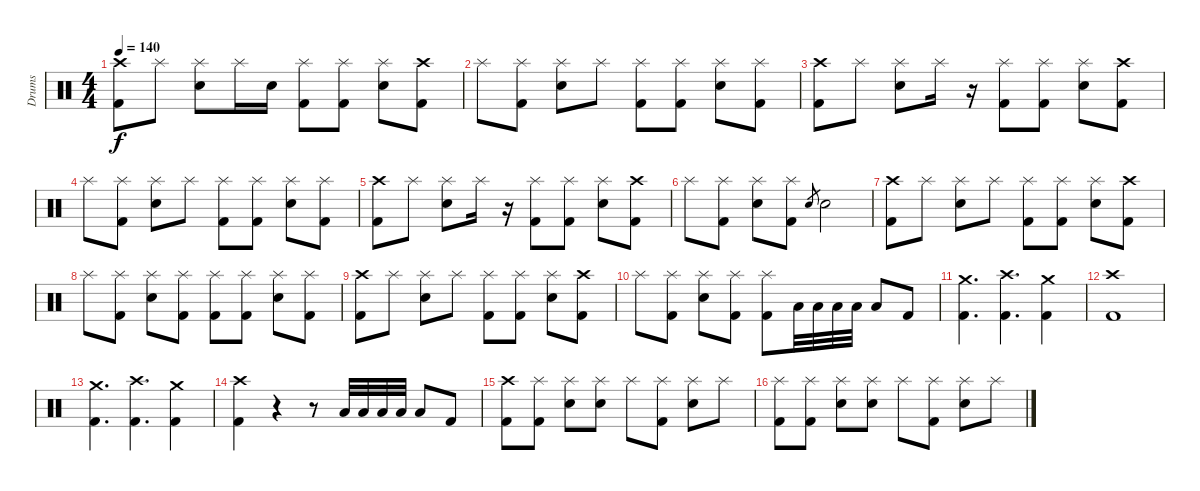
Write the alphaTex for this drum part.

\track ("Drums" "Drums") {instrument percussion}
\staff {score}
\articulation defaults
\ts (4 4)
\tempo 140
\clef neutral
\ks c
("Crash high (hit)" "Kick (hit) 2").8{dy f} "Splash (hit)".8 ("Splash (hit)" "Snare (hit) 2").8 "Splash (hit)".16 "Snare (hit) 2".16 ("Splash (hit)" "Kick (hit) 2").8 ("Splash (hit)" "Kick (hit) 2").8 ("Splash (hit)" "Snare (hit) 2").8 ("Crash high (hit)" "Kick (hit) 2").8 |
"Splash (hit)".8 ("Splash (hit)" "Kick (hit) 2").8 ("Splash (hit)" "Snare (hit) 2").8 "Splash (hit)".8 ("Splash (hit)" "Kick (hit) 2").8 ("Splash (hit)" "Kick (hit) 2").8 ("Splash (hit)" "Snare (hit) 2").8 ("Splash (hit)" "Kick (hit) 2").8 |
("Crash high (hit)" "Kick (hit) 2").8 "Splash (hit)".8 ("Splash (hit)" "Snare (hit) 2").8 "Splash (hit)".16 r.16 ("Splash (hit)" "Kick (hit) 2").8 ("Splash (hit)" "Kick (hit) 2").8 ("Splash (hit)" "Snare (hit) 2").8 ("Crash high (hit)" "Kick (hit) 2").8 |
"Splash (hit)".8 ("Splash (hit)" "Kick (hit) 2").8 ("Splash (hit)" "Snare (hit) 2").8 "Splash (hit)".8 ("Splash (hit)" "Kick (hit) 2").8 ("Splash (hit)" "Kick (hit) 2").8 ("Splash (hit)" "Snare (hit) 2").8 ("Splash (hit)" "Kick (hit) 2").8 |
("Crash high (hit)" "Kick (hit) 2").8 "Splash (hit)".8 ("Splash (hit)" "Snare (hit) 2").8 "Splash (hit)".16 r.16 ("Splash (hit)" "Kick (hit) 2").8 ("Splash (hit)" "Kick (hit) 2").8 ("Splash (hit)" "Snare (hit) 2").8 ("Crash high (hit)" "Kick (hit) 2").8 |
"Splash (hit)".8 ("Splash (hit)" "Kick (hit) 2").8 ("Splash (hit)" "Snare (hit) 2").8 ("Splash (hit)" "Kick (hit) 2").8 "Snare (hit) 2".8{gr} "Snare (hit) 2".2 |
("Crash high (hit)" "Kick (hit) 2").8 "Splash (hit)".8 ("Splash (hit)" "Snare (hit) 2").8 "Splash (hit)".8 ("Splash (hit)" "Kick (hit) 2").8 ("Splash (hit)" "Kick (hit) 2").8 ("Splash (hit)" "Snare (hit) 2").8 ("Crash high (hit)" "Kick (hit) 2").8 |
"Splash (hit)".8 ("Splash (hit)" "Kick (hit) 2").8 ("Splash (hit)" "Snare (hit) 2").8 ("Splash (hit)" "Kick (hit) 2").8 ("Splash (hit)" "Kick (hit) 2").8 ("Splash (hit)" "Kick (hit) 2").8 ("Splash (hit)" "Snare (hit) 2").8 ("Splash (hit)" "Kick (hit) 2").8 |
("Crash high (hit)" "Kick (hit) 2").8 "Splash (hit)".8 ("Splash (hit)" "Snare (hit) 2").8 "Splash (hit)".8 ("Splash (hit)" "Kick (hit) 2").8 ("Splash (hit)" "Kick (hit) 2").8 ("Splash (hit)" "Snare (hit) 2").8 ("Crash high (hit)" "Kick (hit) 2").8 |
"Splash (hit)".8 ("Splash (hit)" "Kick (hit) 2").8 ("Splash (hit)" "Snare (hit) 2").8 ("Splash (hit)" "Kick (hit) 2").8 ("Splash (hit)" "Kick (hit) 2").8 "Low Tom (hit)".32 "Low Tom (hit)".32 "Low Tom (hit)".32 "Low Tom (hit)".32 "Low Tom (hit)".8 "Kick (hit) 2".8 |
("Crash medium (hit)" "Kick (hit) 2").4{d} ("Crash high (hit)" "Kick (hit) 2").4{d} ("Crash medium (hit)" "Kick (hit) 2").4 |
("Crash high (hit)" "Kick (hit) 2").1 |
("Crash medium (hit)" "Kick (hit) 2").4{d} ("Crash high (hit)" "Kick (hit) 2").4{d} ("Crash medium (hit)" "Kick (hit) 2").4 |
("Crash high (hit)" "Kick (hit) 2").4 r.4 r.8 "Low Tom (hit)".32 "Low Tom (hit)".32 "Low Tom (hit)".32 "Low Tom (hit)".32 "Low Tom (hit)".8 "Kick (hit) 2".8 |
("Crash high (hit)" "Kick (hit) 2").8 ("Splash (hit)" "Kick (hit) 2").8 ("Splash (hit)" "Snare (hit) 2").8 ("Splash (hit)" "Snare (hit) 2").8 "Splash (hit)".8 ("Splash (hit)" "Kick (hit) 2").8 ("Splash (hit)" "Snare (hit) 2").8 "Splash (hit)".8 |
("Splash (hit)" "Kick (hit) 2").8 ("Splash (hit)" "Kick (hit) 2").8 ("Splash (hit)" "Snare (hit) 2").8 ("Splash (hit)" "Snare (hit) 2").8 "Splash (hit)".8 ("Splash (hit)" "Kick (hit) 2").8 ("Splash (hit)" "Snare (hit) 2").8 "Splash (hit)".8
